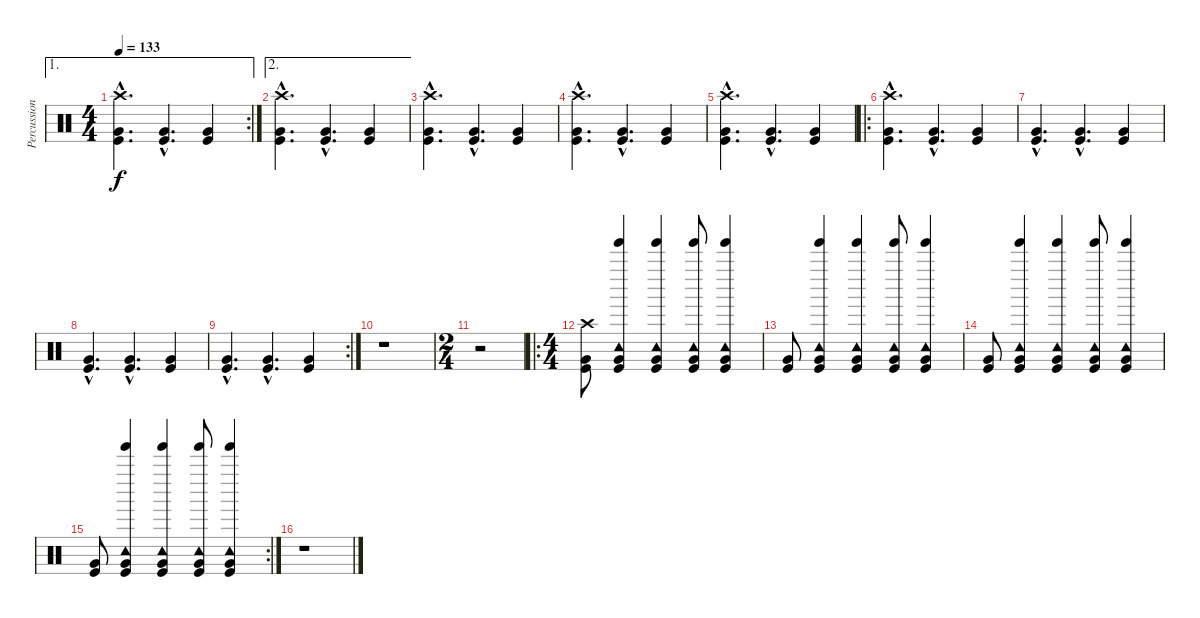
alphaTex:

\track ("Percussion" "Percussion") {instrument percussion}
\staff {score}
\articulation defaults
\ae 1
\rc 2
\ts (4 4)
\tempo 133
\clef neutral
\ks c
("Crash high (hit)"{hac} "Very Low Tom (hit)"{hac} "Kick (hit)"{hac}).4{d dy f} ("Very Low Tom (hit)"{hac} "Kick (hit)"{hac}).4{d} ("Very Low Tom (hit)" "Kick (hit)").4 |
\ae 2
("Crash high (hit)"{hac} "Very Low Tom (hit)"{hac} "Kick (hit)"{hac}).4{d} ("Very Low Tom (hit)"{hac} "Kick (hit)"{hac}).4{d} ("Very Low Tom (hit)" "Kick (hit)").4 |
("Crash high (hit)"{hac} "Very Low Tom (hit)"{hac} "Kick (hit)"{hac}).4{d} ("Very Low Tom (hit)"{hac} "Kick (hit)"{hac}).4{d} ("Very Low Tom (hit)" "Kick (hit)").4 |
("Crash high (hit)"{hac} "Very Low Tom (hit)"{hac} "Kick (hit)"{hac}).4{d} ("Very Low Tom (hit)"{hac} "Kick (hit)"{hac}).4{d} ("Very Low Tom (hit)" "Kick (hit)").4 |
("Crash high (hit)"{hac} "Very Low Tom (hit)"{hac} "Kick (hit)"{hac}).4{d} ("Very Low Tom (hit)"{hac} "Kick (hit)"{hac}).4{d} ("Very Low Tom (hit)" "Kick (hit)").4 |
\ro
("Crash high (hit)"{hac} "Very Low Tom (hit)"{hac} "Kick (hit)"{hac}).4{d} ("Very Low Tom (hit)"{hac} "Kick (hit)"{hac}).4{d} ("Very Low Tom (hit)" "Kick (hit)").4 |
("Very Low Tom (hit)"{hac} "Kick (hit)"{hac}).4{d} ("Very Low Tom (hit)"{hac} "Kick (hit)"{hac}).4{d} ("Very Low Tom (hit)" "Kick (hit)").4 |
("Very Low Tom (hit)"{hac} "Kick (hit)"{hac}).4{d} ("Very Low Tom (hit)"{hac} "Kick (hit)"{hac}).4{d} ("Very Low Tom (hit)" "Kick (hit)").4 |
\rc 2
("Very Low Tom (hit)"{hac} "Kick (hit)"{hac}).4{d} ("Very Low Tom (hit)"{hac} "Kick (hit)"{hac}).4{d} ("Very Low Tom (hit)" "Kick (hit)").4 |
r.1 |
\ts (2 4)
r.2 |
\ro
\ts (4 4)
("Very Low Tom (hit)" "Kick (hit)" "Crash high (hit)").8 ("Tinkle Bell (hit)" "Tambourine (hit)" "Very Low Tom (hit)" "Kick (hit)").4 ("Tinkle Bell (hit)" "Tambourine (hit)" "Very Low Tom (hit)" "Kick (hit)").4 ("Tinkle Bell (hit)" "Tambourine (hit)" "Very Low Tom (hit)" "Kick (hit)").8 ("Tinkle Bell (hit)" "Tambourine (hit)" "Very Low Tom (hit)" "Kick (hit)").4 |
("Very Low Tom (hit)" "Kick (hit)").8 ("Tinkle Bell (hit)" "Tambourine (hit)" "Very Low Tom (hit)" "Kick (hit)").4 ("Tinkle Bell (hit)" "Tambourine (hit)" "Very Low Tom (hit)" "Kick (hit)").4 ("Tinkle Bell (hit)" "Tambourine (hit)" "Very Low Tom (hit)" "Kick (hit)").8 ("Tinkle Bell (hit)" "Tambourine (hit)" "Very Low Tom (hit)" "Kick (hit)").4 |
("Very Low Tom (hit)" "Kick (hit)").8 ("Tinkle Bell (hit)" "Tambourine (hit)" "Very Low Tom (hit)" "Kick (hit)").4 ("Tinkle Bell (hit)" "Tambourine (hit)" "Very Low Tom (hit)" "Kick (hit)").4 ("Tinkle Bell (hit)" "Tambourine (hit)" "Very Low Tom (hit)" "Kick (hit)").8 ("Tinkle Bell (hit)" "Tambourine (hit)" "Very Low Tom (hit)" "Kick (hit)").4 |
\rc 2
("Very Low Tom (hit)" "Kick (hit)").8 ("Tinkle Bell (hit)" "Tambourine (hit)" "Very Low Tom (hit)" "Kick (hit)").4 ("Tinkle Bell (hit)" "Tambourine (hit)" "Very Low Tom (hit)" "Kick (hit)").4 ("Tinkle Bell (hit)" "Tambourine (hit)" "Very Low Tom (hit)" "Kick (hit)").8 ("Tinkle Bell (hit)" "Tambourine (hit)" "Very Low Tom (hit)" "Kick (hit)").4 |
r.1
